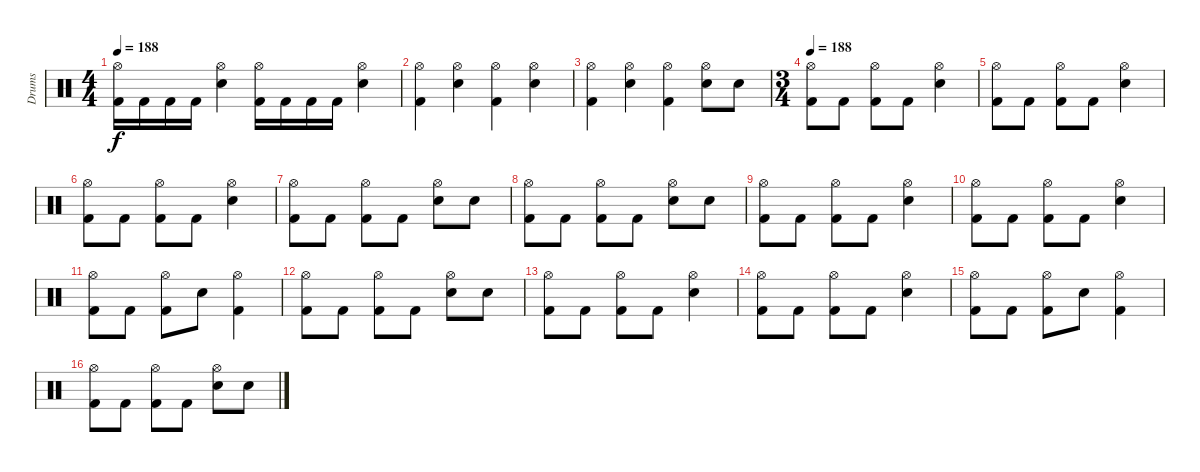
\track ("Drums" "Drums") {instrument percussion}
\staff {score}
\articulation defaults
\ts (4 4)
\tempo 188
\clef neutral
\ks c
("Hi-Hat (open)" "Kick (hit) 2").16{dy f} "Kick (hit) 2".16 "Kick (hit) 2".16 "Kick (hit) 2".16 ("Electric Snare (hit)" "Hi-Hat (open)").4 ("Hi-Hat (open)" "Kick (hit) 2").16 "Kick (hit) 2".16 "Kick (hit) 2".16 "Kick (hit) 2".16 ("Electric Snare (hit)" "Hi-Hat (open)").4 |
("Hi-Hat (open)" "Kick (hit) 2").4 ("Electric Snare (hit)" "Hi-Hat (open)").4 ("Hi-Hat (open)" "Kick (hit) 2").4 ("Electric Snare (hit)" "Hi-Hat (open)").4 |
("Hi-Hat (open)" "Kick (hit) 2").4 ("Electric Snare (hit)" "Hi-Hat (open)").4 ("Hi-Hat (open)" "Kick (hit) 2").4 ("Electric Snare (hit)" "Hi-Hat (open)").8 "Electric Snare (hit)".8 |
\ts (3 4)
\tempo 188
("Hi-Hat (open)" "Kick (hit) 2").8 "Kick (hit) 2".8 ("Hi-Hat (open)" "Kick (hit) 2").8 "Kick (hit) 2".8 ("Electric Snare (hit)" "Hi-Hat (open)").4 |
("Hi-Hat (open)" "Kick (hit) 2").8 "Kick (hit) 2".8 ("Hi-Hat (open)" "Kick (hit) 2").8 "Kick (hit) 2".8 ("Electric Snare (hit)" "Hi-Hat (open)").4 |
("Hi-Hat (open)" "Kick (hit) 2").8 "Kick (hit) 2".8 ("Hi-Hat (open)" "Kick (hit) 2").8 "Kick (hit) 2".8 ("Electric Snare (hit)" "Hi-Hat (open)").4 |
("Hi-Hat (open)" "Kick (hit) 2").8 "Kick (hit) 2".8 ("Hi-Hat (open)" "Kick (hit) 2").8 "Kick (hit) 2".8 ("Electric Snare (hit)" "Hi-Hat (open)").8 "Electric Snare (hit)".8 |
("Hi-Hat (open)" "Kick (hit) 2").8 "Kick (hit) 2".8 ("Hi-Hat (open)" "Kick (hit) 2").8 "Kick (hit) 2".8 ("Electric Snare (hit)" "Hi-Hat (open)").8 "Electric Snare (hit)".8 |
("Hi-Hat (open)" "Kick (hit) 2").8 "Kick (hit) 2".8 ("Hi-Hat (open)" "Kick (hit) 2").8 "Kick (hit) 2".8 ("Electric Snare (hit)" "Hi-Hat (open)").4 |
("Hi-Hat (open)" "Kick (hit) 2").8 "Kick (hit) 2".8 ("Hi-Hat (open)" "Kick (hit) 2").8 "Kick (hit) 2".8 ("Electric Snare (hit)" "Hi-Hat (open)").4 |
("Hi-Hat (open)" "Kick (hit) 2").8 "Kick (hit) 2".8 ("Hi-Hat (open)" "Kick (hit) 2").8 "Electric Snare (hit)".8 ("Hi-Hat (open)" "Kick (hit) 2").4 |
("Hi-Hat (open)" "Kick (hit) 2").8 "Kick (hit) 2".8 ("Hi-Hat (open)" "Kick (hit) 2").8 "Kick (hit) 2".8 ("Electric Snare (hit)" "Hi-Hat (open)").8 "Electric Snare (hit)".8 |
("Hi-Hat (open)" "Kick (hit) 2").8 "Kick (hit) 2".8 ("Hi-Hat (open)" "Kick (hit) 2").8 "Kick (hit) 2".8 ("Electric Snare (hit)" "Hi-Hat (open)").4 |
("Hi-Hat (open)" "Kick (hit) 2").8 "Kick (hit) 2".8 ("Hi-Hat (open)" "Kick (hit) 2").8 "Kick (hit) 2".8 ("Electric Snare (hit)" "Hi-Hat (open)").4 |
("Hi-Hat (open)" "Kick (hit) 2").8 "Kick (hit) 2".8 ("Hi-Hat (open)" "Kick (hit) 2").8 "Electric Snare (hit)".8 ("Hi-Hat (open)" "Kick (hit) 2").4 |
("Hi-Hat (open)" "Kick (hit) 2").8 "Kick (hit) 2".8 ("Hi-Hat (open)" "Kick (hit) 2").8 "Kick (hit) 2".8 ("Electric Snare (hit)" "Hi-Hat (open)").8 "Electric Snare (hit)".8
